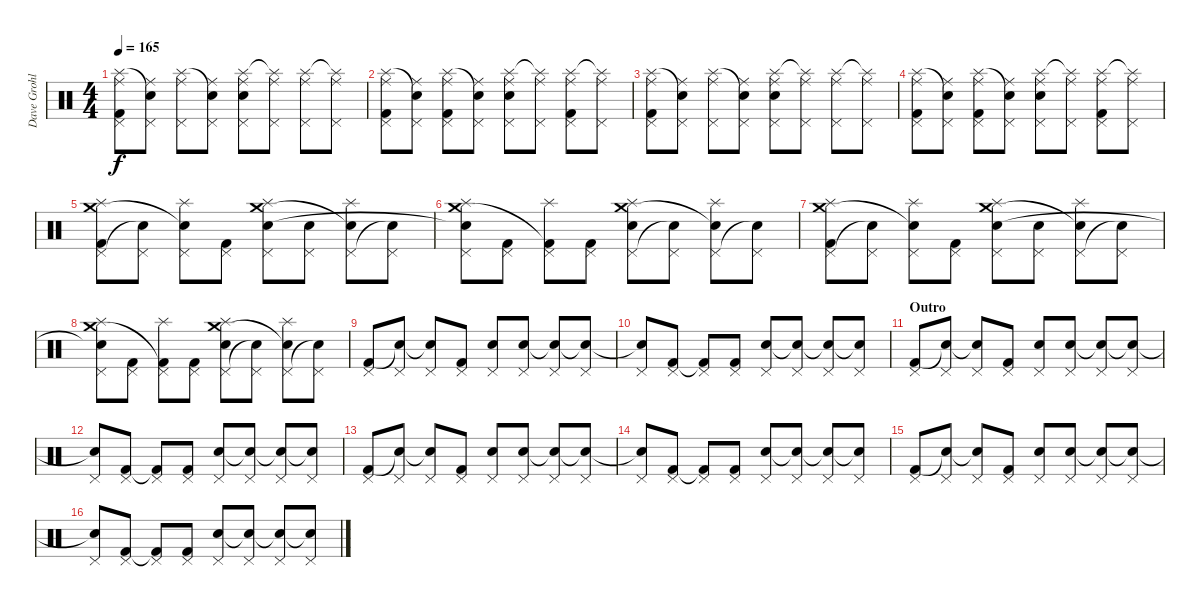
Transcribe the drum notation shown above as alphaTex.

\track ("Dave Grohl" "Dave Grohl") {instrument percussion}
\staff {score}
\articulation defaults
\ts (4 4)
\tempo 165
\clef neutral
\ks c
("Splash (hit)" "Pedal Hi-Hat (hit)" "Ride (middle)" "Kick (hit) 2").8{dy f} ("Snare (hit)"{t} "Pedal Hi-Hat (hit)" "Ride (middle)").8 ("Splash (hit)" "Pedal Hi-Hat (hit)" "Ride (middle)").8 ("Snare (hit)"{t} "Pedal Hi-Hat (hit)" "Ride (middle)").8 ("Splash (hit)" "Pedal Hi-Hat (hit)" "Ride (middle)" "Snare (hit) 2").8 ("Splash (hit)"{t} "Pedal Hi-Hat (hit)" "Ride (middle)").8 ("Splash (hit)" "Pedal Hi-Hat (hit)" "Ride (middle)").8 ("Splash (hit)"{t} "Pedal Hi-Hat (hit)" "Ride (middle)").8 |
("Splash (hit)" "Pedal Hi-Hat (hit)" "Ride (middle)" "Kick (hit) 2").8 ("Snare (hit)"{t} "Pedal Hi-Hat (hit)" "Ride (middle)").8 ("Splash (hit)" "Pedal Hi-Hat (hit)" "Ride (middle)" "Kick (hit) 2").8 ("Snare (hit)"{t} "Pedal Hi-Hat (hit)" "Ride (middle)").8 ("Splash (hit)" "Pedal Hi-Hat (hit)" "Ride (middle)" "Snare (hit) 2").8 ("Splash (hit)"{t} "Pedal Hi-Hat (hit)" "Ride (middle)").8 ("Splash (hit)" "Pedal Hi-Hat (hit)" "Ride (middle)" "Kick (hit) 2").8 ("Splash (hit)"{t} "Pedal Hi-Hat (hit)" "Ride (middle)").8 |
("Splash (hit)" "Pedal Hi-Hat (hit)" "Ride (middle)" "Kick (hit) 2").8 ("Snare (hit)"{t} "Pedal Hi-Hat (hit)" "Ride (middle)").8 ("Splash (hit)" "Pedal Hi-Hat (hit)" "Ride (middle)").8 ("Snare (hit)"{t} "Pedal Hi-Hat (hit)" "Ride (middle)").8 ("Splash (hit)" "Pedal Hi-Hat (hit)" "Ride (middle)" "Snare (hit) 2").8 ("Splash (hit)"{t} "Pedal Hi-Hat (hit)" "Ride (middle)").8 ("Splash (hit)" "Pedal Hi-Hat (hit)" "Ride (middle)").8 ("Splash (hit)"{t} "Pedal Hi-Hat (hit)" "Ride (middle)").8 |
("Splash (hit)" "Pedal Hi-Hat (hit)" "Ride (middle)" "Kick (hit) 2").8 ("Snare (hit)"{t} "Pedal Hi-Hat (hit)" "Ride (middle)").8 ("Splash (hit)" "Pedal Hi-Hat (hit)" "Ride (middle)" "Kick (hit) 2").8 ("Snare (hit)"{t} "Pedal Hi-Hat (hit)" "Ride (middle)").8 ("Splash (hit)" "Pedal Hi-Hat (hit)" "Ride (middle)" "Snare (hit) 2").8 ("Splash (hit)"{t} "Pedal Hi-Hat (hit)" "Ride (middle)").8 ("Splash (hit)" "Pedal Hi-Hat (hit)" "Ride (middle)" "Kick (hit) 2").8 ("Splash (hit)"{t} "Pedal Hi-Hat (hit)" "Ride (middle)").8 |
("Splash (hit)" "Pedal Hi-Hat (hit)" "Crash medium (hit)" "Kick (hit) 2").8 ("Pedal Hi-Hat (hit)" "Snare (hit)"{t}).8 ("Splash (hit)" "Pedal Hi-Hat (hit)" "Snare (hit)"{t}).8 ("Pedal Hi-Hat (hit)" "Kick (hit) 2").8 ("Splash (hit)" "Pedal Hi-Hat (hit)" "Crash medium (hit)" "Snare (hit) 2").8 ("Pedal Hi-Hat (hit)" "Snare (hit) 2").8 ("Splash (hit)" "Pedal Hi-Hat (hit)" "Snare (hit)"{t}).8 ("Pedal Hi-Hat (hit)" "Snare (hit)"{t}).8 |
("Splash (hit)" "Pedal Hi-Hat (hit)" "Crash medium (hit)" "Snare (hit)"{t}).8 ("Pedal Hi-Hat (hit)" "Kick (hit) 2").8 ("Splash (hit)" "Pedal Hi-Hat (hit)" "Kick (hit) 2"{t}).8 ("Pedal Hi-Hat (hit)" "Kick (hit) 2").8 ("Splash (hit)" "Pedal Hi-Hat (hit)" "Crash medium (hit)" "Snare (hit) 2").8 ("Pedal Hi-Hat (hit)" "Snare (hit)"{t}).8 ("Splash (hit)" "Pedal Hi-Hat (hit)" "Snare (hit)"{t}).8 ("Pedal Hi-Hat (hit)" "Snare (hit)"{t}).8 |
("Splash (hit)" "Pedal Hi-Hat (hit)" "Crash medium (hit)" "Kick (hit) 2").8 ("Pedal Hi-Hat (hit)" "Snare (hit)"{t}).8 ("Splash (hit)" "Pedal Hi-Hat (hit)" "Snare (hit)"{t}).8 ("Pedal Hi-Hat (hit)" "Kick (hit) 2").8 ("Splash (hit)" "Pedal Hi-Hat (hit)" "Crash medium (hit)" "Snare (hit) 2").8 ("Pedal Hi-Hat (hit)" "Snare (hit) 2").8 ("Splash (hit)" "Pedal Hi-Hat (hit)" "Snare (hit)"{t}).8 ("Pedal Hi-Hat (hit)" "Snare (hit)"{t}).8 |
("Splash (hit)" "Pedal Hi-Hat (hit)" "Crash medium (hit)" "Snare (hit)"{t}).8 ("Pedal Hi-Hat (hit)" "Kick (hit) 2").8 ("Splash (hit)" "Pedal Hi-Hat (hit)" "Kick (hit) 2"{t}).8 ("Pedal Hi-Hat (hit)" "Kick (hit) 2").8 ("Splash (hit)" "Pedal Hi-Hat (hit)" "Crash medium (hit)" "Snare (hit) 2").8 ("Pedal Hi-Hat (hit)" "Snare (hit)"{t}).8 ("Splash (hit)" "Pedal Hi-Hat (hit)" "Snare (hit)"{t}).8 ("Pedal Hi-Hat (hit)" "Snare (hit)"{t}).8 |
("Pedal Hi-Hat (hit)" "Kick (hit) 2").8 ("Pedal Hi-Hat (hit)" "Snare (hit)"{t}).8 ("Pedal Hi-Hat (hit)" "Snare (hit)"{t}).8 ("Pedal Hi-Hat (hit)" "Kick (hit) 2").8 ("Pedal Hi-Hat (hit)" "Snare (hit) 2").8 ("Pedal Hi-Hat (hit)" "Snare (hit) 2").8 ("Pedal Hi-Hat (hit)" "Snare (hit)"{t}).8 ("Pedal Hi-Hat (hit)" "Snare (hit)"{t}).8 |
("Pedal Hi-Hat (hit)" "Snare (hit)"{t}).8 ("Pedal Hi-Hat (hit)" "Kick (hit) 2").8 ("Pedal Hi-Hat (hit)" "Kick (hit) 2"{t}).8 ("Pedal Hi-Hat (hit)" "Kick (hit) 2").8 ("Pedal Hi-Hat (hit)" "Snare (hit) 2").8 ("Pedal Hi-Hat (hit)" "Snare (hit)"{t}).8 ("Pedal Hi-Hat (hit)" "Snare (hit)"{t}).8 ("Pedal Hi-Hat (hit)" "Snare (hit)"{t}).8 |
\section ("" "Outro")
("Pedal Hi-Hat (hit)" "Kick (hit) 2").8 ("Pedal Hi-Hat (hit)" "Snare (hit)"{t}).8 ("Pedal Hi-Hat (hit)" "Snare (hit)"{t}).8 ("Pedal Hi-Hat (hit)" "Kick (hit) 2").8 ("Pedal Hi-Hat (hit)" "Snare (hit) 2").8 ("Pedal Hi-Hat (hit)" "Snare (hit) 2").8 ("Pedal Hi-Hat (hit)" "Snare (hit)"{t}).8 ("Pedal Hi-Hat (hit)" "Snare (hit)"{t}).8 |
("Pedal Hi-Hat (hit)" "Snare (hit)"{t}).8 ("Pedal Hi-Hat (hit)" "Kick (hit) 2").8 ("Pedal Hi-Hat (hit)" "Kick (hit) 2"{t}).8 ("Pedal Hi-Hat (hit)" "Kick (hit) 2").8 ("Pedal Hi-Hat (hit)" "Snare (hit) 2").8 ("Pedal Hi-Hat (hit)" "Snare (hit)"{t}).8 ("Pedal Hi-Hat (hit)" "Snare (hit)"{t}).8 ("Pedal Hi-Hat (hit)" "Snare (hit)"{t}).8 |
("Pedal Hi-Hat (hit)" "Kick (hit) 2").8 ("Pedal Hi-Hat (hit)" "Snare (hit)"{t}).8 ("Pedal Hi-Hat (hit)" "Snare (hit)"{t}).8 ("Pedal Hi-Hat (hit)" "Kick (hit) 2").8 ("Pedal Hi-Hat (hit)" "Snare (hit) 2").8 ("Pedal Hi-Hat (hit)" "Snare (hit) 2").8 ("Pedal Hi-Hat (hit)" "Snare (hit)"{t}).8 ("Pedal Hi-Hat (hit)" "Snare (hit)"{t}).8 |
("Pedal Hi-Hat (hit)" "Snare (hit)"{t}).8 ("Pedal Hi-Hat (hit)" "Kick (hit) 2").8 ("Pedal Hi-Hat (hit)" "Kick (hit) 2"{t}).8 ("Pedal Hi-Hat (hit)" "Kick (hit) 2").8 ("Pedal Hi-Hat (hit)" "Snare (hit) 2").8 ("Pedal Hi-Hat (hit)" "Snare (hit)"{t}).8 ("Pedal Hi-Hat (hit)" "Snare (hit)"{t}).8 ("Pedal Hi-Hat (hit)" "Snare (hit)"{t}).8 |
("Pedal Hi-Hat (hit)" "Kick (hit) 2").8 ("Pedal Hi-Hat (hit)" "Snare (hit)"{t}).8 ("Pedal Hi-Hat (hit)" "Snare (hit)"{t}).8 ("Pedal Hi-Hat (hit)" "Kick (hit) 2").8 ("Pedal Hi-Hat (hit)" "Snare (hit) 2").8 ("Pedal Hi-Hat (hit)" "Snare (hit) 2").8 ("Pedal Hi-Hat (hit)" "Snare (hit)"{t}).8 ("Pedal Hi-Hat (hit)" "Snare (hit)"{t}).8 |
("Pedal Hi-Hat (hit)" "Snare (hit)"{t}).8 ("Pedal Hi-Hat (hit)" "Kick (hit) 2").8 ("Pedal Hi-Hat (hit)" "Kick (hit) 2"{t}).8 ("Pedal Hi-Hat (hit)" "Kick (hit) 2").8 ("Pedal Hi-Hat (hit)" "Snare (hit) 2").8 ("Pedal Hi-Hat (hit)" "Snare (hit)"{t}).8 ("Pedal Hi-Hat (hit)" "Snare (hit)"{t}).8 ("Pedal Hi-Hat (hit)" "Snare (hit)"{t}).8
